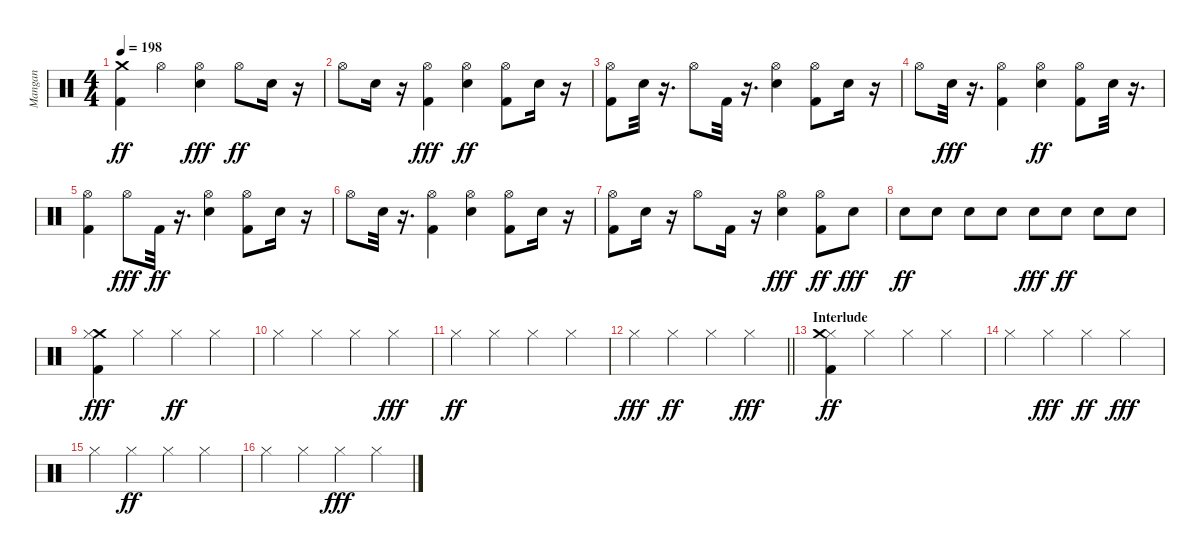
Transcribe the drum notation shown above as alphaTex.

\track ("Mangan" "Mangan") {instrument percussion}
\staff {score}
\articulation defaults
\ts (4 4)
\tempo 198
\clef neutral
\ks c
("Kick (hit) 2" "Crash medium (hit)").4{dy ff} "Hi-Hat (open)".4 ("Snare (hit) 2" "Hi-Hat (open)").4{dy fff} "Hi-Hat (open)".8{dy ff} "Snare (hit) 2".16 r.16 |
"Hi-Hat (open)".8 "Snare (hit) 2".16 r.16 ("Kick (hit) 2" "Hi-Hat (open)").4{dy fff} ("Snare (hit) 2" "Hi-Hat (open)").4{dy ff} ("Kick (hit) 2" "Hi-Hat (open)").8 "Snare (hit) 2".16 r.16 |
("Kick (hit) 2" "Hi-Hat (open)").8 "Snare (hit) 2".32 r.16{d} "Hi-Hat (open)".8 "Kick (hit) 2".32 r.16{d} ("Snare (hit) 2" "Hi-Hat (open)").4 ("Kick (hit) 2" "Hi-Hat (open)").8 "Snare (hit) 2".16 r.16 |
"Hi-Hat (open)".8 "Snare (hit) 2".32{dy fff} r.16{d} ("Kick (hit) 2" "Hi-Hat (open)").4 ("Snare (hit) 2" "Hi-Hat (open)").4{dy ff} ("Kick (hit) 2" "Hi-Hat (open)").8 "Snare (hit) 2".32 r.16{d} |
("Kick (hit) 2" "Hi-Hat (open)").4 "Hi-Hat (open)".8{dy fff} "Kick (hit) 2".32{dy ff} r.16{d} ("Snare (hit) 2" "Hi-Hat (open)").4 ("Kick (hit) 2" "Hi-Hat (open)").8 "Snare (hit) 2".16 r.16 |
"Hi-Hat (open)".8 "Snare (hit) 2".32 r.16{d} ("Kick (hit) 2" "Hi-Hat (open)").4 ("Snare (hit) 2" "Hi-Hat (open)").4 ("Kick (hit) 2" "Hi-Hat (open)").8 "Snare (hit) 2".16 r.16 |
("Kick (hit) 2" "Hi-Hat (open)").8 "Snare (hit) 2".16 r.16 "Hi-Hat (open)".8 "Kick (hit) 2".16 r.16 ("Snare (hit) 2" "Hi-Hat (open)").4{dy fff} ("Kick (hit) 2" "Hi-Hat (open)").8{dy ff} "Snare (hit) 2".8{dy fff} |
"Snare (hit) 2".8{dy ff} "Snare (hit) 2".8 "Snare (hit) 2".8 "Snare (hit) 2".8 "Snare (hit) 2".8{dy fff} "Snare (hit) 2".8{dy ff} "Snare (hit) 2".8 "Snare (hit) 2".8 |
("Kick (hit) 2" "Crash medium (hit)" "Hi-Hat (closed)").4{dy fff} "Hi-Hat (closed)".4 "Hi-Hat (closed)".4{dy ff} "Hi-Hat (closed)".4 |
"Hi-Hat (closed)".4 "Hi-Hat (closed)".4 "Hi-Hat (closed)".4 "Hi-Hat (closed)".4{dy fff} |
"Hi-Hat (closed)".4{dy ff} "Hi-Hat (closed)".4 "Hi-Hat (closed)".4 "Hi-Hat (closed)".4 |
\barLineRight lightlight "Hi-Hat (closed)".4{dy fff} "Hi-Hat (closed)".4{dy ff} "Hi-Hat (closed)".4 "Hi-Hat (closed)".4{dy fff}
|
\section ("" "Interlude")
("Hi-Hat (closed)" "Kick (hit) 2" "Crash medium (hit)").4{dy ff} "Hi-Hat (closed)".4 "Hi-Hat (closed)".4 "Hi-Hat (closed)".4 |
"Hi-Hat (closed)".4 "Hi-Hat (closed)".4{dy fff} "Hi-Hat (closed)".4{dy ff} "Hi-Hat (closed)".4{dy fff} |
"Hi-Hat (closed)".4 "Hi-Hat (closed)".4{dy ff} "Hi-Hat (closed)".4 "Hi-Hat (closed)".4 |
"Hi-Hat (closed)".4 "Hi-Hat (closed)".4 "Hi-Hat (closed)".4{dy fff} "Hi-Hat (closed)".4
